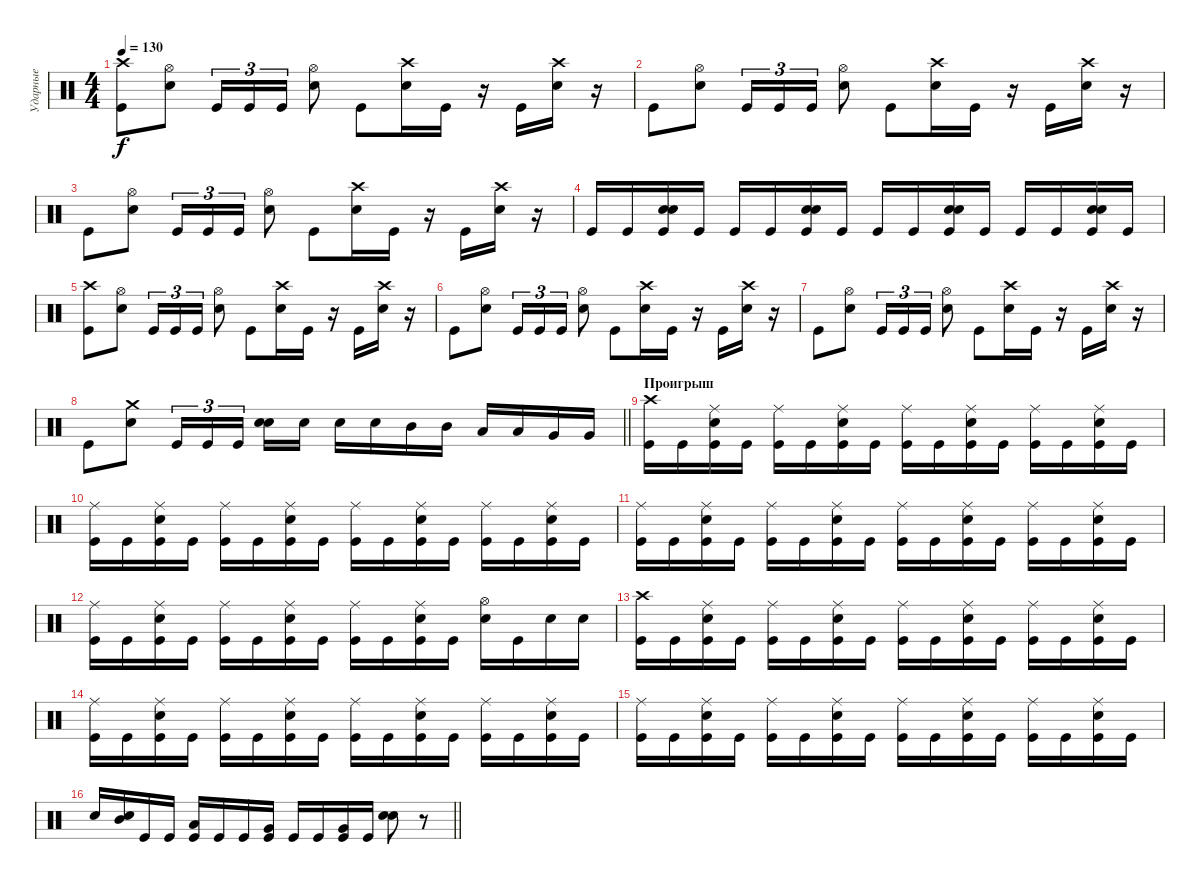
\track ("Ударные" "Ударные") {instrument percussion}
\staff {score}
\articulation defaults
\ts (4 4)
\tempo 130
\clef neutral
\ks c
("Kick (hit)" "Crash high (hit)").8{dy f} ("Snare (hit) 2" "Hi-Hat (open)").8 "Kick (hit)".16{tu (3 2)} "Kick (hit)".16{tu (3 2)} "Kick (hit)".16{tu (3 2)} ("Snare (hit) 2" "Hi-Hat (open)").8 "Kick (hit)".8 ("Snare (hit) 2" "Crash high (hit)").16 "Kick (hit)".16 r.16 "Kick (hit)".16 ("Snare (hit) 2" "Crash high (hit)").16 r.16 |
"Kick (hit)".8 ("Snare (hit) 2" "Hi-Hat (open)").8 "Kick (hit)".16{tu (3 2)} "Kick (hit)".16{tu (3 2)} "Kick (hit)".16{tu (3 2)} ("Snare (hit) 2" "Hi-Hat (open)").8 "Kick (hit)".8 ("Snare (hit) 2" "Crash high (hit)").16 "Kick (hit)".16 r.16 "Kick (hit)".16 ("Snare (hit) 2" "Crash high (hit)").16 r.16 |
"Kick (hit)".8 ("Snare (hit) 2" "Hi-Hat (open)").8 "Kick (hit)".16{tu (3 2)} "Kick (hit)".16{tu (3 2)} "Kick (hit)".16{tu (3 2)} ("Snare (hit) 2" "Hi-Hat (open)").8 "Kick (hit)".8 ("Snare (hit) 2" "Crash high (hit)").16 "Kick (hit)".16 r.16 "Kick (hit)".16 ("Snare (hit) 2" "Crash high (hit)").16 r.16 |
"Kick (hit)".16 "Kick (hit)".16 ("Kick (hit)" "Snare (hit) 2" "Snare (hit) 2").16{bd 60} "Kick (hit)".16 "Kick (hit)".16 "Kick (hit)".16 ("Kick (hit)" "Snare (hit) 2" "Snare (hit) 2").16{bd 60} "Kick (hit)".16 "Kick (hit)".16 "Kick (hit)".16 ("Kick (hit)" "Snare (hit) 2" "Snare (hit) 2").16{bd 60} "Kick (hit)".16 "Kick (hit)".16 "Kick (hit)".16 ("Kick (hit)" "Snare (hit) 2" "Snare (hit) 2").16{bd 60} "Kick (hit)".16 |
("Kick (hit)" "Crash high (hit)").8 ("Snare (hit) 2" "Hi-Hat (open)").8 "Kick (hit)".16{tu (3 2)} "Kick (hit)".16{tu (3 2)} "Kick (hit)".16{tu (3 2)} ("Snare (hit) 2" "Hi-Hat (open)").8 "Kick (hit)".8 ("Snare (hit) 2" "Crash high (hit)").16 "Kick (hit)".16 r.16 "Kick (hit)".16 ("Snare (hit) 2" "Crash high (hit)").16 r.16 |
"Kick (hit)".8 ("Snare (hit) 2" "Hi-Hat (open)").8 "Kick (hit)".16{tu (3 2)} "Kick (hit)".16{tu (3 2)} "Kick (hit)".16{tu (3 2)} ("Snare (hit) 2" "Hi-Hat (open)").8 "Kick (hit)".8 ("Snare (hit) 2" "Crash high (hit)").16 "Kick (hit)".16 r.16 "Kick (hit)".16 ("Snare (hit) 2" "Crash high (hit)").16 r.16 |
"Kick (hit)".8 ("Snare (hit) 2" "Hi-Hat (open)").8 "Kick (hit)".16{tu (3 2)} "Kick (hit)".16{tu (3 2)} "Kick (hit)".16{tu (3 2)} ("Snare (hit) 2" "Hi-Hat (open)").8 "Kick (hit)".8 ("Snare (hit) 2" "Crash high (hit)").16 "Kick (hit)".16 r.16 "Kick (hit)".16 ("Snare (hit) 2" "Crash high (hit)").16 r.16 |
\barLineRight lightlight "Kick (hit)".8
("Snare (hit) 2" "Crash medium (hit)").8 "Kick (hit)".16{tu (3 2)} "Kick (hit)".16{tu (3 2)} "Kick (hit)".16{tu (3 2) beam splitsecondary} ("Snare (hit) 2" "Snare (hit) 2").16{bd 60} "Snare (hit) 2".16 "Snare (hit) 2".16 "Snare (hit) 2".16 "Mid Tom (hit)".16 "Mid Tom (hit)".16 "Low Tom (hit)".16 "Low Tom (hit)".16 "Very Low Tom (hit)".16 "Very Low Tom (hit)".16 |
\section ("" "Проигрыш")
("Kick (hit)" "Crash high (hit)").16 "Kick (hit)".16 ("Kick (hit)" "Snare (hit) 2" "Ride (middle)").16 "Kick (hit)".16 ("Kick (hit)" "Ride (middle)").16 "Kick (hit)".16 ("Kick (hit)" "Snare (hit) 2" "Ride (middle)").16 "Kick (hit)".16 ("Kick (hit)" "Ride (middle)").16 "Kick (hit)".16 ("Kick (hit)" "Snare (hit) 2" "Ride (middle)").16 "Kick (hit)".16 ("Kick (hit)" "Ride (middle)").16 "Kick (hit)".16 ("Kick (hit)" "Snare (hit) 2" "Ride (middle)").16 "Kick (hit)".16 |
("Kick (hit)" "Ride (middle)").16 "Kick (hit)".16 ("Kick (hit)" "Snare (hit) 2" "Ride (middle)").16 "Kick (hit)".16 ("Kick (hit)" "Ride (middle)").16 "Kick (hit)".16 ("Kick (hit)" "Snare (hit) 2" "Ride (middle)").16 "Kick (hit)".16 ("Kick (hit)" "Ride (middle)").16 "Kick (hit)".16 ("Kick (hit)" "Snare (hit) 2" "Ride (middle)").16 "Kick (hit)".16 ("Kick (hit)" "Ride (middle)").16 "Kick (hit)".16 ("Kick (hit)" "Snare (hit) 2" "Ride (middle)").16 "Kick (hit)".16 |
("Kick (hit)" "Ride (middle)").16 "Kick (hit)".16 ("Kick (hit)" "Snare (hit) 2" "Ride (middle)").16 "Kick (hit)".16 ("Kick (hit)" "Ride (middle)").16 "Kick (hit)".16 ("Kick (hit)" "Snare (hit) 2" "Ride (middle)").16 "Kick (hit)".16 ("Kick (hit)" "Ride (middle)").16 "Kick (hit)".16 ("Kick (hit)" "Snare (hit) 2" "Ride (middle)").16 "Kick (hit)".16 ("Kick (hit)" "Ride (middle)").16 "Kick (hit)".16 ("Kick (hit)" "Snare (hit) 2" "Ride (middle)").16 "Kick (hit)".16 |
("Kick (hit)" "Ride (middle)").16 "Kick (hit)".16 ("Kick (hit)" "Snare (hit) 2" "Ride (middle)").16 "Kick (hit)".16 ("Kick (hit)" "Ride (middle)").16 "Kick (hit)".16 ("Kick (hit)" "Snare (hit) 2" "Ride (middle)").16 "Kick (hit)".16 ("Kick (hit)" "Ride (middle)").16 "Kick (hit)".16 ("Kick (hit)" "Snare (hit) 2" "Ride (middle)").16 "Kick (hit)".16 ("Snare (hit) 2" "Hi-Hat (open)").16 "Kick (hit)".16 "Snare (hit) 2".16 "Snare (hit) 2".16 |
("Kick (hit)" "Crash high (hit)").16 "Kick (hit)".16 ("Kick (hit)" "Snare (hit) 2" "Ride (middle)").16 "Kick (hit)".16 ("Kick (hit)" "Ride (middle)").16 "Kick (hit)".16 ("Kick (hit)" "Snare (hit) 2" "Ride (middle)").16 "Kick (hit)".16 ("Kick (hit)" "Ride (middle)").16 "Kick (hit)".16 ("Kick (hit)" "Snare (hit) 2" "Ride (middle)").16 "Kick (hit)".16 ("Kick (hit)" "Ride (middle)").16 "Kick (hit)".16 ("Kick (hit)" "Snare (hit) 2" "Ride (middle)").16 "Kick (hit)".16 |
("Kick (hit)" "Ride (middle)").16 "Kick (hit)".16 ("Kick (hit)" "Snare (hit) 2" "Ride (middle)").16 "Kick (hit)".16 ("Kick (hit)" "Ride (middle)").16 "Kick (hit)".16 ("Kick (hit)" "Snare (hit) 2" "Ride (middle)").16 "Kick (hit)".16 ("Kick (hit)" "Ride (middle)").16 "Kick (hit)".16 ("Kick (hit)" "Snare (hit) 2" "Ride (middle)").16 "Kick (hit)".16 ("Kick (hit)" "Ride (middle)").16 "Kick (hit)".16 ("Kick (hit)" "Snare (hit) 2" "Ride (middle)").16 "Kick (hit)".16 |
("Kick (hit)" "Ride (middle)").16 "Kick (hit)".16 ("Kick (hit)" "Snare (hit) 2" "Ride (middle)").16 "Kick (hit)".16 ("Kick (hit)" "Ride (middle)").16 "Kick (hit)".16 ("Kick (hit)" "Snare (hit) 2" "Ride (middle)").16 "Kick (hit)".16 ("Kick (hit)" "Ride (middle)").16 "Kick (hit)".16 ("Kick (hit)" "Snare (hit) 2" "Ride (middle)").16 "Kick (hit)".16 ("Kick (hit)" "Ride (middle)").16 "Kick (hit)".16 ("Kick (hit)" "Snare (hit) 2" "Ride (middle)").16 "Kick (hit)".16 |
\barLineRight lightlight "Snare (hit) 2".16
("Snare (hit) 2" "Mid Tom (hit)").16 "Kick (hit)".16 "Kick (hit)".16 ("Kick (hit)" "Low Tom (hit)").16 "Kick (hit)".16 "Kick (hit)".16 ("Kick (hit)" "Very Low Tom (hit)").16 "Kick (hit)".16 "Kick (hit)".16 ("Kick (hit)" "Very Low Tom (hit)").16 "Kick (hit)".16 ("Snare (hit) 2" "Snare (hit) 2").8{bd 120} r.8
